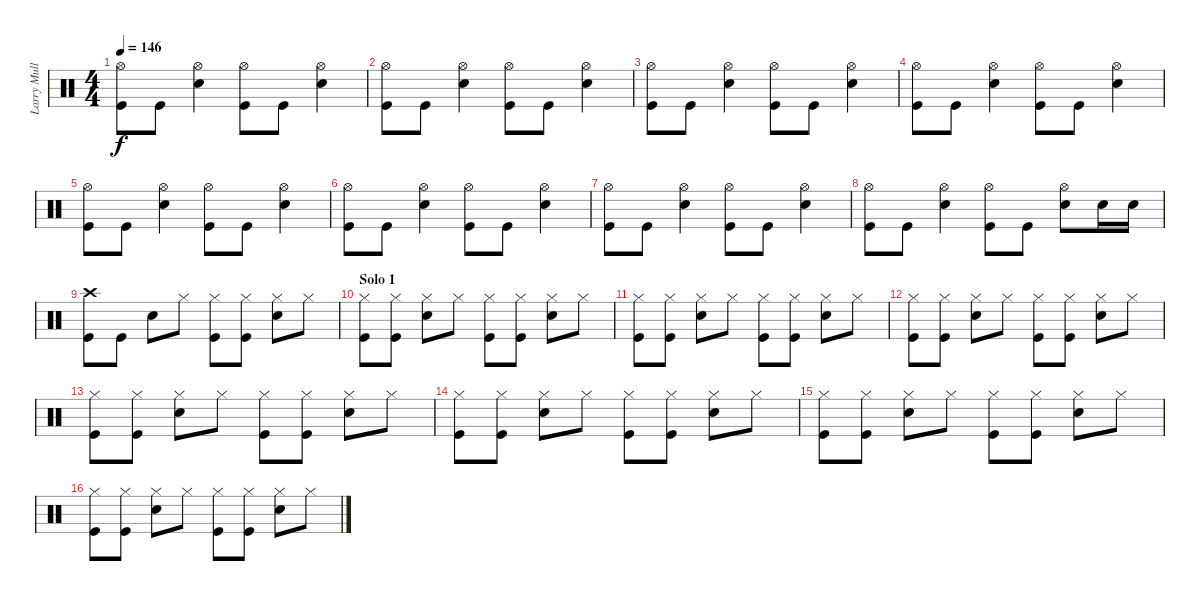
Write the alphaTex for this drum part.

\track ("Larry Mullen" "Larry Mull") {instrument percussion}
\staff {score}
\articulation defaults
\ts (4 4)
\tempo 146
\clef neutral
\ks c
("Hi-Hat (open)" "Kick (hit)").8{dy f} "Kick (hit)".8 ("Hi-Hat (open)" "Snare (hit) 2").4 ("Hi-Hat (open)" "Kick (hit)").8 "Kick (hit)".8 ("Hi-Hat (open)" "Snare (hit) 2").4 |
("Hi-Hat (open)" "Kick (hit)").8 "Kick (hit)".8 ("Hi-Hat (open)" "Snare (hit) 2").4 ("Hi-Hat (open)" "Kick (hit)").8 "Kick (hit)".8 ("Hi-Hat (open)" "Snare (hit) 2").4 |
("Hi-Hat (open)" "Kick (hit)").8 "Kick (hit)".8 ("Hi-Hat (open)" "Snare (hit) 2").4 ("Hi-Hat (open)" "Kick (hit)").8 "Kick (hit)".8 ("Hi-Hat (open)" "Snare (hit) 2").4 |
("Hi-Hat (open)" "Kick (hit)").8 "Kick (hit)".8 ("Hi-Hat (open)" "Snare (hit) 2").4 ("Hi-Hat (open)" "Kick (hit)").8 "Kick (hit)".8 ("Hi-Hat (open)" "Snare (hit) 2").4 |
("Hi-Hat (open)" "Kick (hit)").8 "Kick (hit)".8 ("Hi-Hat (open)" "Snare (hit) 2").4 ("Hi-Hat (open)" "Kick (hit)").8 "Kick (hit)".8 ("Hi-Hat (open)" "Snare (hit) 2").4 |
("Hi-Hat (open)" "Kick (hit)").8 "Kick (hit)".8 ("Hi-Hat (open)" "Snare (hit) 2").4 ("Hi-Hat (open)" "Kick (hit)").8 "Kick (hit)".8 ("Hi-Hat (open)" "Snare (hit) 2").4 |
("Hi-Hat (open)" "Kick (hit)").8 "Kick (hit)".8 ("Hi-Hat (open)" "Snare (hit) 2").4 ("Hi-Hat (open)" "Kick (hit)").8 "Kick (hit)".8 ("Hi-Hat (open)" "Snare (hit) 2").4 |
("Hi-Hat (open)" "Kick (hit)").8 "Kick (hit)".8 ("Hi-Hat (open)" "Snare (hit) 2").4 ("Hi-Hat (open)" "Kick (hit)").8 "Kick (hit)".8 ("Hi-Hat (open)" "Snare (hit) 2").8 "Snare (hit) 2".16 "Snare (hit) 2".16 |
("Crash high (hit)" "Kick (hit)").8 "Kick (hit)".8 "Snare (hit) 2".8 "Hi-Hat (closed)".8 ("Hi-Hat (closed)" "Kick (hit)").8 ("Hi-Hat (closed)" "Kick (hit)").8 ("Hi-Hat (closed)" "Snare (hit) 2").8 "Hi-Hat (closed)".8 |
\section ("" "Solo 1")
("Hi-Hat (closed)" "Kick (hit)").8 ("Hi-Hat (closed)" "Kick (hit)").8 ("Hi-Hat (closed)" "Snare (hit) 2").8 "Hi-Hat (closed)".8 ("Hi-Hat (closed)" "Kick (hit)").8 ("Hi-Hat (closed)" "Kick (hit)").8 ("Hi-Hat (closed)" "Snare (hit) 2").8 "Hi-Hat (closed)".8 |
("Hi-Hat (closed)" "Kick (hit)").8 ("Hi-Hat (closed)" "Kick (hit)").8 ("Hi-Hat (closed)" "Snare (hit) 2").8 "Hi-Hat (closed)".8 ("Hi-Hat (closed)" "Kick (hit)").8 ("Hi-Hat (closed)" "Kick (hit)").8 ("Hi-Hat (closed)" "Snare (hit) 2").8 "Hi-Hat (closed)".8 |
("Hi-Hat (closed)" "Kick (hit)").8 ("Hi-Hat (closed)" "Kick (hit)").8 ("Hi-Hat (closed)" "Snare (hit) 2").8 "Hi-Hat (closed)".8 ("Hi-Hat (closed)" "Kick (hit)").8 ("Hi-Hat (closed)" "Kick (hit)").8 ("Hi-Hat (closed)" "Snare (hit) 2").8 "Hi-Hat (closed)".8 |
("Hi-Hat (closed)" "Kick (hit)").8 ("Hi-Hat (closed)" "Kick (hit)").8 ("Hi-Hat (closed)" "Snare (hit) 2").8 "Hi-Hat (closed)".8 ("Hi-Hat (closed)" "Kick (hit)").8 ("Hi-Hat (closed)" "Kick (hit)").8 ("Hi-Hat (closed)" "Snare (hit) 2").8 "Hi-Hat (closed)".8 |
("Hi-Hat (closed)" "Kick (hit)").8 ("Hi-Hat (closed)" "Kick (hit)").8 ("Hi-Hat (closed)" "Snare (hit) 2").8 "Hi-Hat (closed)".8 ("Hi-Hat (closed)" "Kick (hit)").8 ("Hi-Hat (closed)" "Kick (hit)").8 ("Hi-Hat (closed)" "Snare (hit) 2").8 "Hi-Hat (closed)".8 |
("Hi-Hat (closed)" "Kick (hit)").8 ("Hi-Hat (closed)" "Kick (hit)").8 ("Hi-Hat (closed)" "Snare (hit) 2").8 "Hi-Hat (closed)".8 ("Hi-Hat (closed)" "Kick (hit)").8 ("Hi-Hat (closed)" "Kick (hit)").8 ("Hi-Hat (closed)" "Snare (hit) 2").8 "Hi-Hat (closed)".8 |
("Hi-Hat (closed)" "Kick (hit)").8 ("Hi-Hat (closed)" "Kick (hit)").8 ("Hi-Hat (closed)" "Snare (hit) 2").8 "Hi-Hat (closed)".8 ("Hi-Hat (closed)" "Kick (hit)").8 ("Hi-Hat (closed)" "Kick (hit)").8 ("Hi-Hat (closed)" "Snare (hit) 2").8 "Hi-Hat (closed)".8
